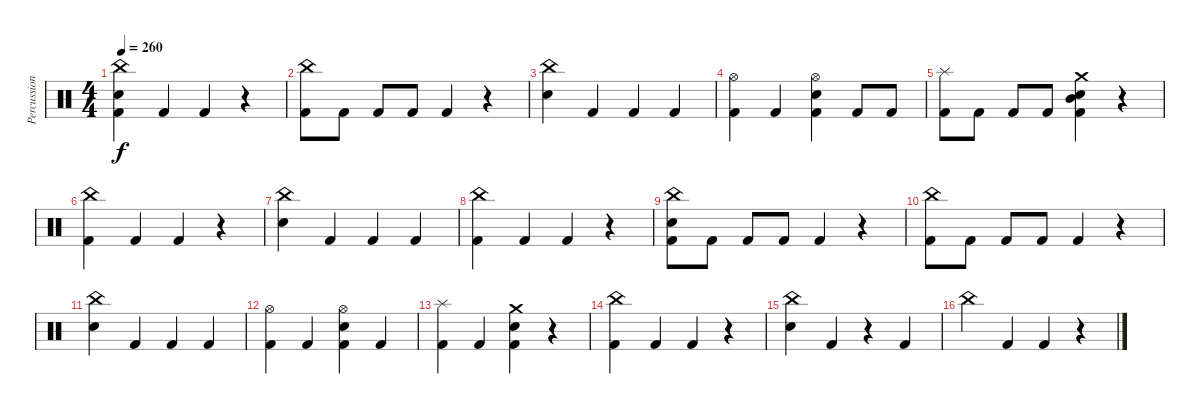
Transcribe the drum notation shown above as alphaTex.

\track ("Percussion" "Percussion") {instrument percussion}
\staff {score}
\articulation defaults
\ts (4 4)
\tempo 260
\clef neutral
\ks c
("China (hit)" "Electric Snare (hit)" "Kick (hit) 2").4{dy f} "Kick (hit) 2".4 "Kick (hit) 2".4 r.4 |
("China (hit)" "Kick (hit) 2").8 "Kick (hit) 2".8 "Kick (hit) 2".8 "Kick (hit) 2".8 "Kick (hit) 2".4 r.4 |
("China (hit)" "Electric Snare (hit)").4 "Kick (hit) 2".4 "Kick (hit) 2".4 "Kick (hit) 2".4 |
("Hi-Hat (open)" "Kick (hit) 2").4 "Kick (hit) 2".4 ("Hi-Hat (open)" "Electric Snare (hit)" "Kick (hit) 2").4 "Kick (hit) 2".8 "Kick (hit) 2".8 |
("Splash (hit)" "Kick (hit) 2").8 "Kick (hit) 2".8 "Kick (hit) 2".8 "Kick (hit) 2".8 ("Crash medium (hit)" "Electric Snare (hit)" "Mid Tom (hit)" "Kick (hit) 2").4 r.4 |
("China (hit)" "Kick (hit) 2").4 "Kick (hit) 2".4 "Kick (hit) 2".4 r.4 |
("China (hit)" "Electric Snare (hit)").4 "Kick (hit) 2".4 "Kick (hit) 2".4 "Kick (hit) 2".4 |
("China (hit)" "Kick (hit) 2").4 "Kick (hit) 2".4 "Kick (hit) 2".4 r.4 |
("China (hit)" "Electric Snare (hit)" "Kick (hit) 2").8 "Kick (hit) 2".8 "Kick (hit) 2".8 "Kick (hit) 2".8 "Kick (hit) 2".4 r.4 |
("China (hit)" "Kick (hit) 2").8 "Kick (hit) 2".8 "Kick (hit) 2".8 "Kick (hit) 2".8 "Kick (hit) 2".4 r.4 |
("China (hit)" "Electric Snare (hit)").4 "Kick (hit) 2".4 "Kick (hit) 2".4 "Kick (hit) 2".4 |
("Hi-Hat (open)" "Kick (hit) 2").4 "Kick (hit) 2".4 ("Hi-Hat (open)" "Electric Snare (hit)" "Kick (hit) 2").4 "Kick (hit) 2".4 |
("Splash (hit)" "Kick (hit) 2").4 "Kick (hit) 2".4 ("Crash medium (hit)" "Electric Snare (hit)" "Kick (hit) 2").4 r.4 |
("China (hit)" "Kick (hit) 2").4 "Kick (hit) 2".4 "Kick (hit) 2".4 r.4 |
("China (hit)" "Electric Snare (hit)").4 "Kick (hit) 2".4 r.4 "Kick (hit) 2".4 |
"China (hit)".4 "Kick (hit) 2".4 "Kick (hit) 2".4 r.4
